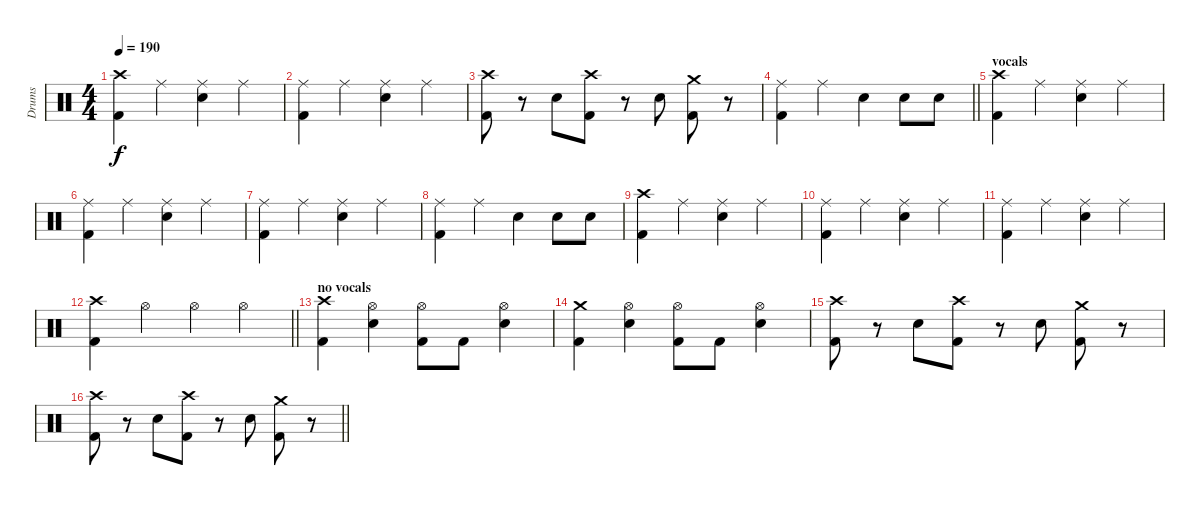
\track ("Drums" "Drums") {instrument percussion}
\staff {score}
\articulation defaults
\ts (4 4)
\tempo 190
\clef neutral
\ks c
("Crash high (hit)" "Kick (hit) 2").4{dy f} "Ride (middle)".4 ("Ride (middle)" "Snare (hit) 2").4 "Ride (middle)".4 |
("Ride (middle)" "Kick (hit) 2").4 "Ride (middle)".4 ("Ride (middle)" "Snare (hit) 2").4 "Ride (middle)".4 |
("Crash high (hit)" "Kick (hit) 2").8 r.8 "Snare (hit) 2".8 ("Crash high (hit)" "Kick (hit) 2").8 r.8 "Snare (hit) 2".8 ("Crash medium (hit)" "Kick (hit) 2").8 r.8 |
\barLineRight lightlight
("Ride (middle)" "Kick (hit) 2").4 "Ride (middle)".4 "Snare (hit) 2".4 "Snare (hit) 2".8 "Snare (hit) 2".8 |
\section ("" "vocals")
("Crash high (hit)" "Kick (hit) 2").4 "Ride (middle)".4 ("Ride (middle)" "Snare (hit) 2").4 "Ride (middle)".4 |
("Ride (middle)" "Kick (hit) 2").4 "Ride (middle)".4 ("Ride (middle)" "Snare (hit) 2").4 "Ride (middle)".4 |
("Ride (middle)" "Kick (hit) 2").4 "Ride (middle)".4 ("Ride (middle)" "Snare (hit) 2").4 "Ride (middle)".4 |
("Ride (middle)" "Kick (hit) 2").4 "Ride (middle)".4 "Snare (hit) 2".4 "Snare (hit) 2".8 "Snare (hit) 2".8 |
("Crash high (hit)" "Kick (hit) 2").4 "Ride (middle)".4 ("Ride (middle)" "Snare (hit) 2").4 "Ride (middle)".4 |
("Ride (middle)" "Kick (hit) 2").4 "Ride (middle)".4 ("Ride (middle)" "Snare (hit) 2").4 "Ride (middle)".4 |
("Ride (middle)" "Kick (hit) 2").4 "Ride (middle)".4 ("Ride (middle)" "Snare (hit) 2").4 "Ride (middle)".4 |
\barLineRight lightlight
("Crash high (hit)" "Kick (hit) 2").4 "Hi-Hat (open)".4 "Hi-Hat (open)".4 "Hi-Hat (open)".4 |
\section ("" "no vocals")
("Crash high (hit)" "Kick (hit) 2").4 ("Hi-Hat (open)" "Snare (hit) 2").4 ("Hi-Hat (open)" "Kick (hit) 2").8 "Kick (hit) 2".8 ("Hi-Hat (open)" "Snare (hit) 2").4 |
("Crash medium (hit)" "Kick (hit) 2").4 ("Hi-Hat (open)" "Snare (hit) 2").4 ("Hi-Hat (open)" "Kick (hit) 2").8 "Kick (hit) 2".8 ("Hi-Hat (open)" "Snare (hit) 2").4 |
("Crash high (hit)" "Kick (hit) 2").8 r.8 "Snare (hit) 2".8 ("Crash high (hit)" "Kick (hit) 2").8 r.8 "Snare (hit) 2".8 ("Crash medium (hit)" "Kick (hit) 2").8 r.8 |
\barLineRight lightlight
("Crash high (hit)" "Kick (hit) 2").8 r.8 "Snare (hit) 2".8 ("Crash high (hit)" "Kick (hit) 2").8 r.8 "Snare (hit) 2".8 ("Crash medium (hit)" "Kick (hit) 2").8 r.8
